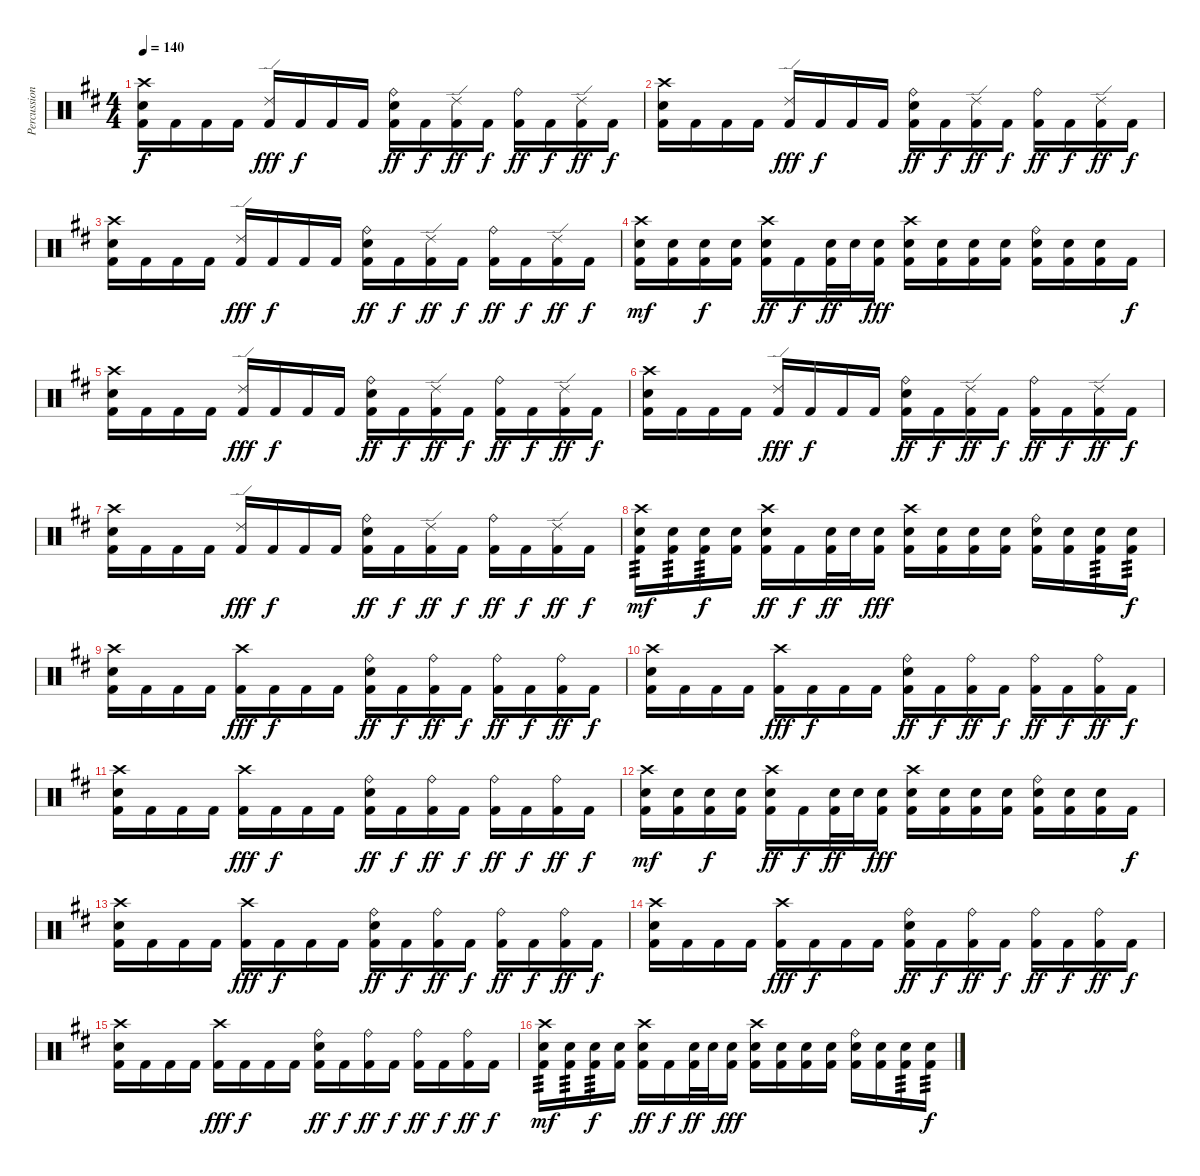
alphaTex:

\track ("Percussion" "Percussion") {instrument percussion}
\staff {score}
\articulation defaults
\ts (4 4)
\tempo 140
\clef neutral
\ks d
("Crash high (hit)" "Electric Snare (hit)" "Kick (hit) 2").16{dy f} "Kick (hit) 2".16 "Kick (hit) 2".16 "Kick (hit) 2".16 ("Ride (edge) 2" "Kick (hit) 2").16{dy fff} "Kick (hit) 2".16{dy f} "Kick (hit) 2".16 "Kick (hit) 2".16 ("Ride (bell)" "Electric Snare (hit)" "Kick (hit) 2").16{dy ff} "Kick (hit) 2".16{dy f} ("Ride (edge) 2" "Kick (hit) 2").16{dy ff} "Kick (hit) 2".16{dy f} ("Ride (bell)" "Kick (hit) 2").16{dy ff} "Kick (hit) 2".16{dy f} ("Ride (edge) 2" "Kick (hit) 2").16{dy ff} "Kick (hit) 2".16{dy f} |
("Crash high (hit)" "Electric Snare (hit)" "Kick (hit) 2").16 "Kick (hit) 2".16 "Kick (hit) 2".16 "Kick (hit) 2".16 ("Ride (edge) 2" "Kick (hit) 2").16{dy fff} "Kick (hit) 2".16{dy f} "Kick (hit) 2".16 "Kick (hit) 2".16 ("Ride (bell)" "Electric Snare (hit)" "Kick (hit) 2").16{dy ff} "Kick (hit) 2".16{dy f} ("Ride (edge) 2" "Kick (hit) 2").16{dy ff} "Kick (hit) 2".16{dy f} ("Ride (bell)" "Kick (hit) 2").16{dy ff} "Kick (hit) 2".16{dy f} ("Ride (edge) 2" "Kick (hit) 2").16{dy ff} "Kick (hit) 2".16{dy f} |
("Crash high (hit)" "Electric Snare (hit)" "Kick (hit) 2").16 "Kick (hit) 2".16 "Kick (hit) 2".16 "Kick (hit) 2".16 ("Ride (edge) 2" "Kick (hit) 2").16{dy fff} "Kick (hit) 2".16{dy f} "Kick (hit) 2".16 "Kick (hit) 2".16 ("Ride (bell)" "Electric Snare (hit)" "Kick (hit) 2").16{dy ff} "Kick (hit) 2".16{dy f} ("Ride (edge) 2" "Kick (hit) 2").16{dy ff} "Kick (hit) 2".16{dy f} ("Ride (bell)" "Kick (hit) 2").16{dy ff} "Kick (hit) 2".16{dy f} ("Ride (edge) 2" "Kick (hit) 2").16{dy ff} "Kick (hit) 2".16{dy f} |
("Crash high (hit)" "Electric Snare (hit)" "Kick (hit) 2").16{dy mf} ("Electric Snare (hit)" "Kick (hit) 2").16 ("Electric Snare (hit)" "Kick (hit) 2").16{dy f} ("Electric Snare (hit)" "Kick (hit) 2").16 ("Crash high (hit)" "Electric Snare (hit)" "Kick (hit) 2").16{dy ff} "Kick (hit) 2".16{dy f} ("Electric Snare (hit)" "Kick (hit) 2").32{dy ff} "Electric Snare (hit)".32 ("Electric Snare (hit)" "Kick (hit) 2").16{dy fff} ("Crash high (hit)" "Electric Snare (hit)" "Kick (hit) 2").16 ("Electric Snare (hit)" "Kick (hit) 2").16 ("Electric Snare (hit)" "Kick (hit) 2").16 ("Electric Snare (hit)" "Kick (hit) 2").16 ("Ride (bell)" "Electric Snare (hit)" "Kick (hit) 2").16 ("Electric Snare (hit)" "Kick (hit) 2").16 ("Electric Snare (hit)" "Kick (hit) 2").16 "Kick (hit) 2".16{dy f} |
("Crash high (hit)" "Electric Snare (hit)" "Kick (hit) 2").16 "Kick (hit) 2".16 "Kick (hit) 2".16 "Kick (hit) 2".16 ("Ride (edge) 2" "Kick (hit) 2").16{dy fff} "Kick (hit) 2".16{dy f} "Kick (hit) 2".16 "Kick (hit) 2".16 ("Ride (bell)" "Electric Snare (hit)" "Kick (hit) 2").16{dy ff} "Kick (hit) 2".16{dy f} ("Ride (edge) 2" "Kick (hit) 2").16{dy ff} "Kick (hit) 2".16{dy f} ("Ride (bell)" "Kick (hit) 2").16{dy ff} "Kick (hit) 2".16{dy f} ("Ride (edge) 2" "Kick (hit) 2").16{dy ff} "Kick (hit) 2".16{dy f} |
("Crash high (hit)" "Electric Snare (hit)" "Kick (hit) 2").16 "Kick (hit) 2".16 "Kick (hit) 2".16 "Kick (hit) 2".16 ("Ride (edge) 2" "Kick (hit) 2").16{dy fff} "Kick (hit) 2".16{dy f} "Kick (hit) 2".16 "Kick (hit) 2".16 ("Ride (bell)" "Electric Snare (hit)" "Kick (hit) 2").16{dy ff} "Kick (hit) 2".16{dy f} ("Ride (edge) 2" "Kick (hit) 2").16{dy ff} "Kick (hit) 2".16{dy f} ("Ride (bell)" "Kick (hit) 2").16{dy ff} "Kick (hit) 2".16{dy f} ("Ride (edge) 2" "Kick (hit) 2").16{dy ff} "Kick (hit) 2".16{dy f} |
("Crash high (hit)" "Electric Snare (hit)" "Kick (hit) 2").16 "Kick (hit) 2".16 "Kick (hit) 2".16 "Kick (hit) 2".16 ("Ride (edge) 2" "Kick (hit) 2").16{dy fff} "Kick (hit) 2".16{dy f} "Kick (hit) 2".16 "Kick (hit) 2".16 ("Ride (bell)" "Electric Snare (hit)" "Kick (hit) 2").16{dy ff} "Kick (hit) 2".16{dy f} ("Ride (edge) 2" "Kick (hit) 2").16{dy ff} "Kick (hit) 2".16{dy f} ("Ride (bell)" "Kick (hit) 2").16{dy ff} "Kick (hit) 2".16{dy f} ("Ride (edge) 2" "Kick (hit) 2").16{dy ff} "Kick (hit) 2".16{dy f} |
("Crash high (hit)" "Electric Snare (hit)" "Kick (hit) 2").16{tp 3 dy mf} ("Electric Snare (hit)" "Kick (hit) 2").16{tp 3} ("Electric Snare (hit)" "Kick (hit) 2").16{tp 3 dy f} ("Electric Snare (hit)" "Kick (hit) 2").16 ("Crash high (hit)" "Electric Snare (hit)" "Kick (hit) 2").16{dy ff} "Kick (hit) 2".16{dy f} ("Electric Snare (hit)" "Kick (hit) 2").32{dy ff} "Electric Snare (hit)".32 ("Electric Snare (hit)" "Kick (hit) 2").16{dy fff} ("Crash high (hit)" "Electric Snare (hit)" "Kick (hit) 2").16 ("Electric Snare (hit)" "Kick (hit) 2").16 ("Electric Snare (hit)" "Kick (hit) 2").16 ("Electric Snare (hit)" "Kick (hit) 2").16 ("Ride (bell)" "Electric Snare (hit)" "Kick (hit) 2").16 ("Electric Snare (hit)" "Kick (hit) 2").16 ("Electric Snare (hit)" "Kick (hit) 2").16{tp 3} ("Electric Snare (hit)" "Kick (hit) 2").16{tp 3 dy f} |
("Crash high (hit)" "Electric Snare (hit)" "Kick (hit) 2").16 "Kick (hit) 2".16 "Kick (hit) 2".16 "Kick (hit) 2".16 ("Crash high (hit)" "Kick (hit) 2").16{dy fff} "Kick (hit) 2".16{dy f} "Kick (hit) 2".16 "Kick (hit) 2".16 ("Ride (bell)" "Electric Snare (hit)" "Kick (hit) 2").16{dy ff} "Kick (hit) 2".16{dy f} ("Ride (bell)" "Kick (hit) 2").16{dy ff} "Kick (hit) 2".16{dy f} ("Ride (bell)" "Kick (hit) 2").16{dy ff} "Kick (hit) 2".16{dy f} ("Ride (bell)" "Kick (hit) 2").16{dy ff} "Kick (hit) 2".16{dy f} |
("Crash high (hit)" "Electric Snare (hit)" "Kick (hit) 2").16 "Kick (hit) 2".16 "Kick (hit) 2".16 "Kick (hit) 2".16 ("Crash high (hit)" "Kick (hit) 2").16{dy fff} "Kick (hit) 2".16{dy f} "Kick (hit) 2".16 "Kick (hit) 2".16 ("Ride (bell)" "Electric Snare (hit)" "Kick (hit) 2").16{dy ff} "Kick (hit) 2".16{dy f} ("Ride (bell)" "Kick (hit) 2").16{dy ff} "Kick (hit) 2".16{dy f} ("Ride (bell)" "Kick (hit) 2").16{dy ff} "Kick (hit) 2".16{dy f} ("Ride (bell)" "Kick (hit) 2").16{dy ff} "Kick (hit) 2".16{dy f} |
("Crash high (hit)" "Electric Snare (hit)" "Kick (hit) 2").16 "Kick (hit) 2".16 "Kick (hit) 2".16 "Kick (hit) 2".16 ("Crash high (hit)" "Kick (hit) 2").16{dy fff} "Kick (hit) 2".16{dy f} "Kick (hit) 2".16 "Kick (hit) 2".16 ("Ride (bell)" "Electric Snare (hit)" "Kick (hit) 2").16{dy ff} "Kick (hit) 2".16{dy f} ("Ride (bell)" "Kick (hit) 2").16{dy ff} "Kick (hit) 2".16{dy f} ("Ride (bell)" "Kick (hit) 2").16{dy ff} "Kick (hit) 2".16{dy f} ("Ride (bell)" "Kick (hit) 2").16{dy ff} "Kick (hit) 2".16{dy f} |
("Crash high (hit)" "Electric Snare (hit)" "Kick (hit) 2").16{dy mf} ("Electric Snare (hit)" "Kick (hit) 2").16 ("Electric Snare (hit)" "Kick (hit) 2").16{dy f} ("Electric Snare (hit)" "Kick (hit) 2").16 ("Crash high (hit)" "Electric Snare (hit)" "Kick (hit) 2").16{dy ff} "Kick (hit) 2".16{dy f} ("Electric Snare (hit)" "Kick (hit) 2").32{dy ff} "Electric Snare (hit)".32 ("Electric Snare (hit)" "Kick (hit) 2").16{dy fff} ("Crash high (hit)" "Electric Snare (hit)" "Kick (hit) 2").16 ("Electric Snare (hit)" "Kick (hit) 2").16 ("Electric Snare (hit)" "Kick (hit) 2").16 ("Electric Snare (hit)" "Kick (hit) 2").16 ("Ride (bell)" "Electric Snare (hit)" "Kick (hit) 2").16 ("Electric Snare (hit)" "Kick (hit) 2").16 ("Electric Snare (hit)" "Kick (hit) 2").16 "Kick (hit) 2".16{dy f} |
("Crash high (hit)" "Electric Snare (hit)" "Kick (hit) 2").16 "Kick (hit) 2".16 "Kick (hit) 2".16 "Kick (hit) 2".16 ("Crash high (hit)" "Kick (hit) 2").16{dy fff} "Kick (hit) 2".16{dy f} "Kick (hit) 2".16 "Kick (hit) 2".16 ("Ride (bell)" "Electric Snare (hit)" "Kick (hit) 2").16{dy ff} "Kick (hit) 2".16{dy f} ("Ride (bell)" "Kick (hit) 2").16{dy ff} "Kick (hit) 2".16{dy f} ("Ride (bell)" "Kick (hit) 2").16{dy ff} "Kick (hit) 2".16{dy f} ("Ride (bell)" "Kick (hit) 2").16{dy ff} "Kick (hit) 2".16{dy f} |
("Crash high (hit)" "Electric Snare (hit)" "Kick (hit) 2").16 "Kick (hit) 2".16 "Kick (hit) 2".16 "Kick (hit) 2".16 ("Crash high (hit)" "Kick (hit) 2").16{dy fff} "Kick (hit) 2".16{dy f} "Kick (hit) 2".16 "Kick (hit) 2".16 ("Ride (bell)" "Electric Snare (hit)" "Kick (hit) 2").16{dy ff} "Kick (hit) 2".16{dy f} ("Ride (bell)" "Kick (hit) 2").16{dy ff} "Kick (hit) 2".16{dy f} ("Ride (bell)" "Kick (hit) 2").16{dy ff} "Kick (hit) 2".16{dy f} ("Ride (bell)" "Kick (hit) 2").16{dy ff} "Kick (hit) 2".16{dy f} |
("Crash high (hit)" "Electric Snare (hit)" "Kick (hit) 2").16 "Kick (hit) 2".16 "Kick (hit) 2".16 "Kick (hit) 2".16 ("Crash high (hit)" "Kick (hit) 2").16{dy fff} "Kick (hit) 2".16{dy f} "Kick (hit) 2".16 "Kick (hit) 2".16 ("Ride (bell)" "Electric Snare (hit)" "Kick (hit) 2").16{dy ff} "Kick (hit) 2".16{dy f} ("Ride (bell)" "Kick (hit) 2").16{dy ff} "Kick (hit) 2".16{dy f} ("Ride (bell)" "Kick (hit) 2").16{dy ff} "Kick (hit) 2".16{dy f} ("Ride (bell)" "Kick (hit) 2").16{dy ff} "Kick (hit) 2".16{dy f} |
("Crash high (hit)" "Electric Snare (hit)" "Kick (hit) 2").16{tp 3 dy mf} ("Electric Snare (hit)" "Kick (hit) 2").16{tp 3} ("Electric Snare (hit)" "Kick (hit) 2").16{tp 3 dy f} ("Electric Snare (hit)" "Kick (hit) 2").16 ("Crash high (hit)" "Electric Snare (hit)" "Kick (hit) 2").16{dy ff} "Kick (hit) 2".16{dy f} ("Electric Snare (hit)" "Kick (hit) 2").32{dy ff} "Electric Snare (hit)".32 ("Electric Snare (hit)" "Kick (hit) 2").16{dy fff} ("Crash high (hit)" "Electric Snare (hit)" "Kick (hit) 2").16 ("Electric Snare (hit)" "Kick (hit) 2").16 ("Electric Snare (hit)" "Kick (hit) 2").16 ("Electric Snare (hit)" "Kick (hit) 2").16 ("Ride (bell)" "Electric Snare (hit)" "Kick (hit) 2").16 ("Electric Snare (hit)" "Kick (hit) 2").16 ("Electric Snare (hit)" "Kick (hit) 2").16{tp 3} ("Electric Snare (hit)" "Kick (hit) 2").16{tp 3 dy f}
